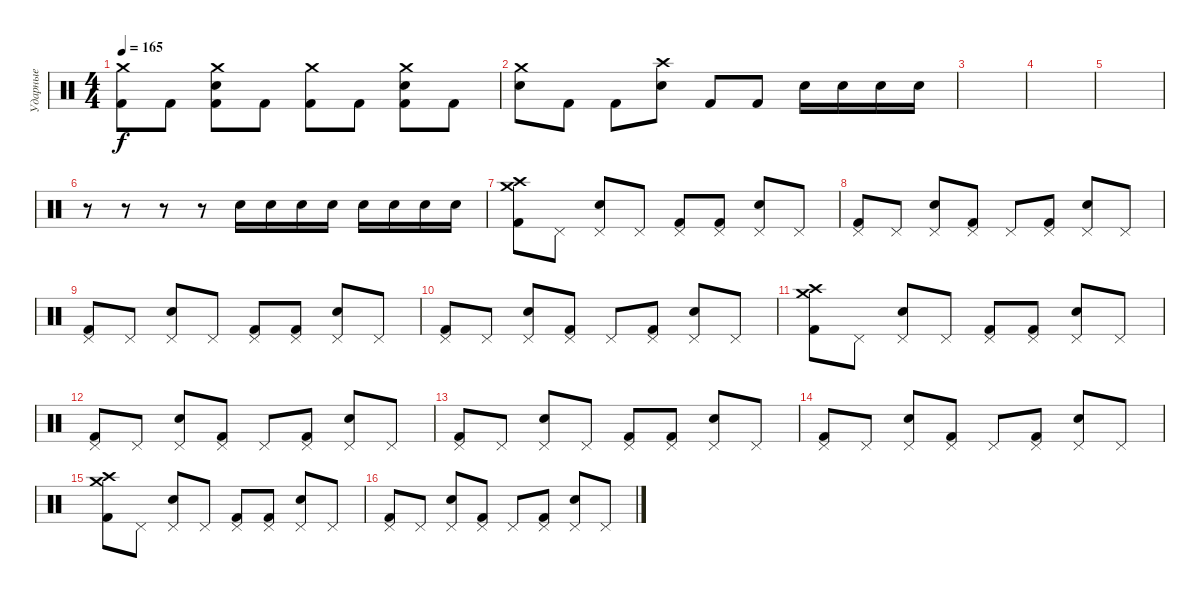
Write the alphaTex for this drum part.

\track ("Ударные" "Ударные") {instrument percussion}
\staff {score}
\articulation defaults
\ts (4 4)
\tempo 165
\clef neutral
\ks c
("Crash medium (hit)" "Kick (hit) 2").8{dy f} "Kick (hit) 2".8 ("Crash medium (hit)" "Electric Snare (hit)" "Kick (hit) 2").8 "Kick (hit) 2".8 ("Crash medium (hit)" "Kick (hit) 2").8 "Kick (hit) 2".8 ("Crash medium (hit)" "Electric Snare (hit)" "Kick (hit) 2").8 "Kick (hit) 2".8 |
("Crash medium (hit)" "Electric Snare (hit)").8 "Kick (hit) 2".8 "Kick (hit) 2".8 ("Crash high (hit)" "Electric Snare (hit)").8 "Kick (hit) 2".8 "Kick (hit) 2".8 "Electric Snare (hit)".16 "Electric Snare (hit)".16 "Electric Snare (hit)".16 "Electric Snare (hit)".16 |
|
|
|
r.8 r.8 r.8 r.8 "Electric Snare (hit)".16 "Electric Snare (hit)".16 "Electric Snare (hit)".16 "Electric Snare (hit)".16 "Electric Snare (hit)".16 "Electric Snare (hit)".16 "Electric Snare (hit)".16 "Electric Snare (hit)".16 |
("Crash medium (hit)" "Crash high (hit)" "Kick (hit) 2").8 "Pedal Hi-Hat (hit)".8 ("Pedal Hi-Hat (hit)" "Electric Snare (hit)").8 "Pedal Hi-Hat (hit)".8 ("Pedal Hi-Hat (hit)" "Kick (hit) 2").8 ("Pedal Hi-Hat (hit)" "Kick (hit) 2").8 ("Pedal Hi-Hat (hit)" "Electric Snare (hit)").8 "Pedal Hi-Hat (hit)".8 |
("Pedal Hi-Hat (hit)" "Kick (hit) 2").8 "Pedal Hi-Hat (hit)".8 ("Pedal Hi-Hat (hit)" "Electric Snare (hit)").8 ("Pedal Hi-Hat (hit)" "Kick (hit) 2").8 "Pedal Hi-Hat (hit)".8 ("Pedal Hi-Hat (hit)" "Kick (hit) 2").8 ("Pedal Hi-Hat (hit)" "Electric Snare (hit)").8 "Pedal Hi-Hat (hit)".8 |
("Pedal Hi-Hat (hit)" "Kick (hit) 2").8 "Pedal Hi-Hat (hit)".8 ("Pedal Hi-Hat (hit)" "Electric Snare (hit)").8 "Pedal Hi-Hat (hit)".8 ("Pedal Hi-Hat (hit)" "Kick (hit) 2").8 ("Pedal Hi-Hat (hit)" "Kick (hit) 2").8 ("Pedal Hi-Hat (hit)" "Electric Snare (hit)").8 "Pedal Hi-Hat (hit)".8 |
("Pedal Hi-Hat (hit)" "Kick (hit) 2").8 "Pedal Hi-Hat (hit)".8 ("Pedal Hi-Hat (hit)" "Electric Snare (hit)").8 ("Pedal Hi-Hat (hit)" "Kick (hit) 2").8 "Pedal Hi-Hat (hit)".8 ("Pedal Hi-Hat (hit)" "Kick (hit) 2").8 ("Pedal Hi-Hat (hit)" "Electric Snare (hit)").8 "Pedal Hi-Hat (hit)".8 |
("Crash medium (hit)" "Crash high (hit)" "Kick (hit) 2").8 "Pedal Hi-Hat (hit)".8 ("Pedal Hi-Hat (hit)" "Electric Snare (hit)").8 "Pedal Hi-Hat (hit)".8 ("Pedal Hi-Hat (hit)" "Kick (hit) 2").8 ("Pedal Hi-Hat (hit)" "Kick (hit) 2").8 ("Pedal Hi-Hat (hit)" "Electric Snare (hit)").8 "Pedal Hi-Hat (hit)".8 |
("Pedal Hi-Hat (hit)" "Kick (hit) 2").8 "Pedal Hi-Hat (hit)".8 ("Pedal Hi-Hat (hit)" "Electric Snare (hit)").8 ("Pedal Hi-Hat (hit)" "Kick (hit) 2").8 "Pedal Hi-Hat (hit)".8 ("Pedal Hi-Hat (hit)" "Kick (hit) 2").8 ("Pedal Hi-Hat (hit)" "Electric Snare (hit)").8 "Pedal Hi-Hat (hit)".8 |
("Pedal Hi-Hat (hit)" "Kick (hit) 2").8 "Pedal Hi-Hat (hit)".8 ("Pedal Hi-Hat (hit)" "Electric Snare (hit)").8 "Pedal Hi-Hat (hit)".8 ("Pedal Hi-Hat (hit)" "Kick (hit) 2").8 ("Pedal Hi-Hat (hit)" "Kick (hit) 2").8 ("Pedal Hi-Hat (hit)" "Electric Snare (hit)").8 "Pedal Hi-Hat (hit)".8 |
("Pedal Hi-Hat (hit)" "Kick (hit) 2").8 "Pedal Hi-Hat (hit)".8 ("Pedal Hi-Hat (hit)" "Electric Snare (hit)").8 ("Pedal Hi-Hat (hit)" "Kick (hit) 2").8 "Pedal Hi-Hat (hit)".8 ("Pedal Hi-Hat (hit)" "Kick (hit) 2").8 ("Pedal Hi-Hat (hit)" "Electric Snare (hit)").8 "Pedal Hi-Hat (hit)".8 |
("Crash medium (hit)" "Crash high (hit)" "Kick (hit) 2").8 "Pedal Hi-Hat (hit)".8 ("Pedal Hi-Hat (hit)" "Electric Snare (hit)").8 "Pedal Hi-Hat (hit)".8 ("Pedal Hi-Hat (hit)" "Kick (hit) 2").8 ("Pedal Hi-Hat (hit)" "Kick (hit) 2").8 ("Pedal Hi-Hat (hit)" "Electric Snare (hit)").8 "Pedal Hi-Hat (hit)".8 |
("Pedal Hi-Hat (hit)" "Kick (hit) 2").8 "Pedal Hi-Hat (hit)".8 ("Pedal Hi-Hat (hit)" "Electric Snare (hit)").8 ("Pedal Hi-Hat (hit)" "Kick (hit) 2").8 "Pedal Hi-Hat (hit)".8 ("Pedal Hi-Hat (hit)" "Kick (hit) 2").8 ("Pedal Hi-Hat (hit)" "Electric Snare (hit)").8 "Pedal Hi-Hat (hit)".8
